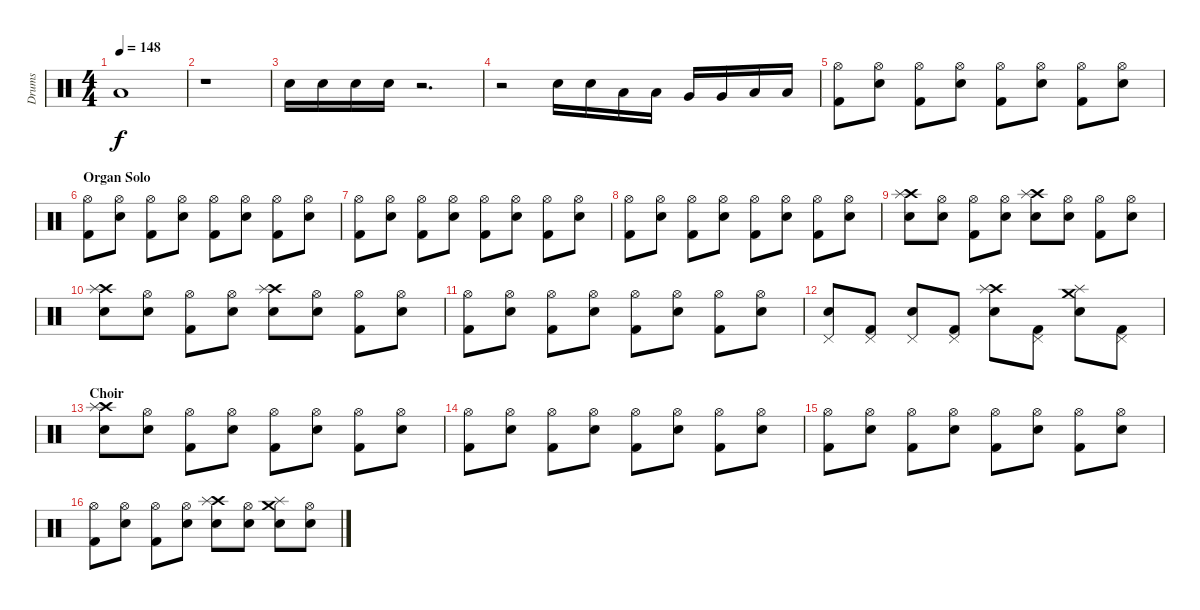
\track ("Drums" "Drums") {instrument percussion}
\staff {score}
\articulation defaults
\ts (4 4)
\tempo 148
\clef neutral
\ks c "Low Tom (hit)".1{dy f}
|
r.1 |
"Snare (hit) 2".16 "Snare (hit) 2".16 "Snare (hit) 2".16 "Snare (hit) 2".16 r.2{d} |
r.2 "Snare (hit) 2".16 "Snare (hit) 2".16 "Low Floor Tom (hit)".16 "Low Floor Tom (hit)".16 "Very Low Tom (hit)".16 "Very Low Tom (hit)".16 "Low Floor Tom (hit)".16 "Low Floor Tom (hit)".16 |
("Hi-Hat (open)" "Kick (hit) 2").8 ("Hi-Hat (open)" "Snare (hit) 2").8 ("Hi-Hat (open)" "Kick (hit) 2").8 ("Hi-Hat (open)" "Snare (hit) 2").8 ("Hi-Hat (open)" "Kick (hit) 2").8 ("Hi-Hat (open)" "Snare (hit) 2").8 ("Hi-Hat (open)" "Kick (hit) 2").8 ("Hi-Hat (open)" "Snare (hit) 2").8 |
\section ("" "Organ Solo")
("Hi-Hat (open)" "Kick (hit) 2").8 ("Hi-Hat (open)" "Snare (hit) 2").8 ("Hi-Hat (open)" "Kick (hit) 2").8 ("Hi-Hat (open)" "Snare (hit) 2").8 ("Hi-Hat (open)" "Kick (hit) 2").8 ("Hi-Hat (open)" "Snare (hit) 2").8 ("Hi-Hat (open)" "Kick (hit) 2").8 ("Hi-Hat (open)" "Snare (hit) 2").8 |
("Hi-Hat (open)" "Kick (hit) 2").8 ("Hi-Hat (open)" "Snare (hit) 2").8 ("Hi-Hat (open)" "Kick (hit) 2").8 ("Hi-Hat (open)" "Snare (hit) 2").8 ("Hi-Hat (open)" "Kick (hit) 2").8 ("Hi-Hat (open)" "Snare (hit) 2").8 ("Hi-Hat (open)" "Kick (hit) 2").8 ("Hi-Hat (open)" "Snare (hit) 2").8 |
("Hi-Hat (open)" "Kick (hit) 2").8 ("Hi-Hat (open)" "Snare (hit) 2").8 ("Hi-Hat (open)" "Kick (hit) 2").8 ("Hi-Hat (open)" "Snare (hit) 2").8 ("Hi-Hat (open)" "Kick (hit) 2").8 ("Hi-Hat (open)" "Snare (hit) 2").8 ("Hi-Hat (open)" "Kick (hit) 2").8 ("Hi-Hat (open)" "Snare (hit) 2").8 |
("Crash high (hit)" "Splash (hit)" "Snare (hit) 2").8 ("Hi-Hat (open)" "Snare (hit) 2").8 ("Hi-Hat (open)" "Kick (hit) 2").8 ("Hi-Hat (open)" "Snare (hit) 2").8 ("Crash high (hit)" "Splash (hit)" "Snare (hit) 2").8 ("Hi-Hat (open)" "Snare (hit) 2").8 ("Hi-Hat (open)" "Kick (hit) 2").8 ("Hi-Hat (open)" "Snare (hit) 2").8 |
("Crash high (hit)" "Splash (hit)" "Snare (hit) 2").8 ("Hi-Hat (open)" "Snare (hit) 2").8 ("Hi-Hat (open)" "Kick (hit) 2").8 ("Hi-Hat (open)" "Snare (hit) 2").8 ("Crash high (hit)" "Splash (hit)" "Snare (hit) 2").8 ("Hi-Hat (open)" "Snare (hit) 2").8 ("Hi-Hat (open)" "Kick (hit) 2").8 ("Hi-Hat (open)" "Snare (hit) 2").8 |
("Hi-Hat (open)" "Kick (hit) 2").8 ("Hi-Hat (open)" "Snare (hit) 2").8 ("Hi-Hat (open)" "Kick (hit) 2").8 ("Hi-Hat (open)" "Snare (hit) 2").8 ("Hi-Hat (open)" "Kick (hit) 2").8 ("Hi-Hat (open)" "Snare (hit) 2").8 ("Hi-Hat (open)" "Kick (hit) 2").8 ("Hi-Hat (open)" "Snare (hit) 2").8 |
("Pedal Hi-Hat (hit)" "Snare (hit) 2").8 ("Pedal Hi-Hat (hit)" "Kick (hit) 2").8 ("Pedal Hi-Hat (hit)" "Snare (hit) 2").8 ("Pedal Hi-Hat (hit)" "Kick (hit) 2").8 ("Crash high (hit)" "Splash (hit)" "Snare (hit) 2").8 ("Pedal Hi-Hat (hit)" "Kick (hit) 2").8 ("Crash medium (hit)" "Splash (hit)" "Snare (hit) 2").8 ("Pedal Hi-Hat (hit)" "Kick (hit) 2").8 |
\section ("" "Choir")
("Crash high (hit)" "Splash (hit)" "Snare (hit) 2").8 ("Hi-Hat (open)" "Snare (hit) 2").8 ("Hi-Hat (open)" "Kick (hit) 2").8 ("Hi-Hat (open)" "Snare (hit) 2").8 ("Hi-Hat (open)" "Kick (hit) 2").8 ("Hi-Hat (open)" "Snare (hit) 2").8 ("Hi-Hat (open)" "Kick (hit) 2").8 ("Hi-Hat (open)" "Snare (hit) 2").8 |
("Hi-Hat (open)" "Kick (hit) 2").8 ("Hi-Hat (open)" "Snare (hit) 2").8 ("Hi-Hat (open)" "Kick (hit) 2").8 ("Hi-Hat (open)" "Snare (hit) 2").8 ("Hi-Hat (open)" "Kick (hit) 2").8 ("Hi-Hat (open)" "Snare (hit) 2").8 ("Hi-Hat (open)" "Kick (hit) 2").8 ("Hi-Hat (open)" "Snare (hit) 2").8 |
("Hi-Hat (open)" "Kick (hit) 2").8 ("Hi-Hat (open)" "Snare (hit) 2").8 ("Hi-Hat (open)" "Kick (hit) 2").8 ("Hi-Hat (open)" "Snare (hit) 2").8 ("Hi-Hat (open)" "Kick (hit) 2").8 ("Hi-Hat (open)" "Snare (hit) 2").8 ("Hi-Hat (open)" "Kick (hit) 2").8 ("Hi-Hat (open)" "Snare (hit) 2").8 |
("Hi-Hat (open)" "Kick (hit) 2").8 ("Hi-Hat (open)" "Snare (hit) 2").8 ("Hi-Hat (open)" "Kick (hit) 2").8 ("Hi-Hat (open)" "Snare (hit) 2").8 ("Crash high (hit)" "Splash (hit)" "Snare (hit) 2").8 ("Hi-Hat (open)" "Snare (hit) 2").8 ("Crash medium (hit)" "Splash (hit)" "Snare (hit) 2").8 ("Hi-Hat (open)" "Snare (hit) 2").8
